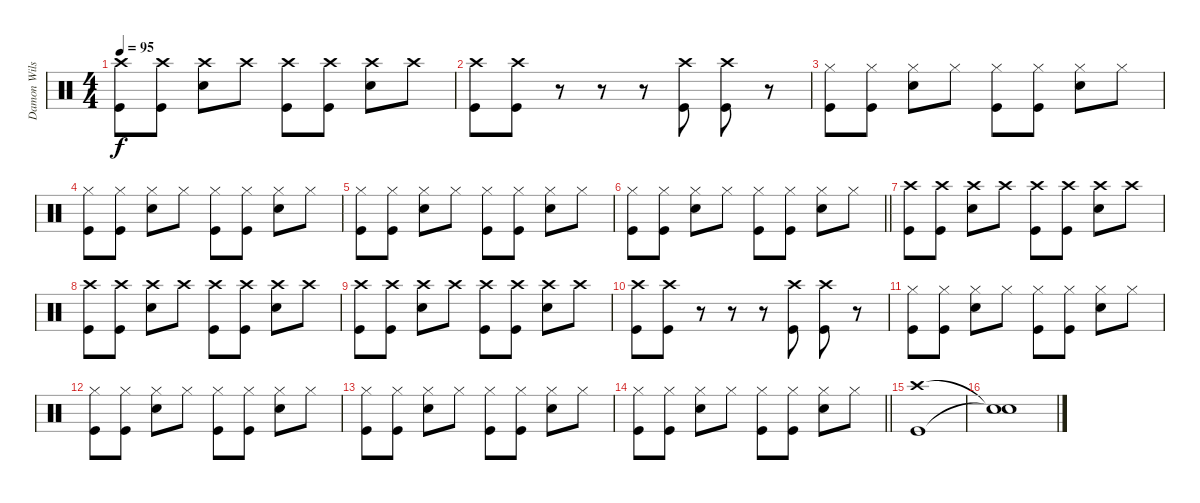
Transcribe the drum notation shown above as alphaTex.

\track ("Damon Wilson (Drums)" "Damon Wils") {instrument percussion}
\staff {score}
\articulation defaults
\ts (4 4)
\tempo 95
\clef neutral
\ks c
("Crash high (hit)" "Kick (hit)").8{dy f} ("Crash high (hit)" "Kick (hit)").8 ("Crash high (hit)" "Snare (hit) 2").8 "Crash high (hit)".8 ("Crash high (hit)" "Kick (hit)").8 ("Crash high (hit)" "Kick (hit)").8 ("Crash high (hit)" "Snare (hit) 2").8 "Crash high (hit)".8 |
("Crash high (hit)" "Kick (hit)").8 ("Crash high (hit)" "Kick (hit)").8 r.8 r.8 r.8 ("Crash high (hit)" "Kick (hit)").8 ("Crash high (hit)" "Kick (hit)").8 r.8 |
("Hi-Hat (closed)" "Kick (hit)").8 ("Hi-Hat (closed)" "Kick (hit)").8 ("Hi-Hat (closed)" "Snare (hit) 2").8 "Hi-Hat (closed)".8 ("Hi-Hat (closed)" "Kick (hit)").8 ("Hi-Hat (closed)" "Kick (hit)").8 ("Hi-Hat (closed)" "Snare (hit) 2").8 "Hi-Hat (closed)".8 |
("Hi-Hat (closed)" "Kick (hit)").8 ("Hi-Hat (closed)" "Kick (hit)").8 ("Hi-Hat (closed)" "Snare (hit) 2").8 "Hi-Hat (closed)".8 ("Hi-Hat (closed)" "Kick (hit)").8 ("Hi-Hat (closed)" "Kick (hit)").8 ("Hi-Hat (closed)" "Snare (hit) 2").8 "Hi-Hat (closed)".8 |
("Hi-Hat (closed)" "Kick (hit)").8 ("Hi-Hat (closed)" "Kick (hit)").8 ("Hi-Hat (closed)" "Snare (hit) 2").8 "Hi-Hat (closed)".8 ("Hi-Hat (closed)" "Kick (hit)").8 ("Hi-Hat (closed)" "Kick (hit)").8 ("Hi-Hat (closed)" "Snare (hit) 2").8 "Hi-Hat (closed)".8 |
\barLineRight lightlight
("Hi-Hat (closed)" "Kick (hit)").8 ("Hi-Hat (closed)" "Kick (hit)").8 ("Hi-Hat (closed)" "Snare (hit) 2").8 "Hi-Hat (closed)".8 ("Hi-Hat (closed)" "Kick (hit)").8 ("Hi-Hat (closed)" "Kick (hit)").8 ("Hi-Hat (closed)" "Snare (hit) 2").8 "Hi-Hat (closed)".8 |
("Crash high (hit)" "Kick (hit)").8 ("Crash high (hit)" "Kick (hit)").8 ("Crash high (hit)" "Snare (hit) 2").8 "Crash high (hit)".8 ("Crash high (hit)" "Kick (hit)").8 ("Crash high (hit)" "Kick (hit)").8 ("Crash high (hit)" "Snare (hit) 2").8 "Crash high (hit)".8 |
("Crash high (hit)" "Kick (hit)").8 ("Crash high (hit)" "Kick (hit)").8 ("Crash high (hit)" "Snare (hit) 2").8 "Crash high (hit)".8 ("Crash high (hit)" "Kick (hit)").8 ("Crash high (hit)" "Kick (hit)").8 ("Crash high (hit)" "Snare (hit) 2").8 "Crash high (hit)".8 |
("Crash high (hit)" "Kick (hit)").8 ("Crash high (hit)" "Kick (hit)").8 ("Crash high (hit)" "Snare (hit) 2").8 "Crash high (hit)".8 ("Crash high (hit)" "Kick (hit)").8 ("Crash high (hit)" "Kick (hit)").8 ("Crash high (hit)" "Snare (hit) 2").8 "Crash high (hit)".8 |
("Crash high (hit)" "Kick (hit)").8 ("Crash high (hit)" "Kick (hit)").8 r.8 r.8 r.8 ("Crash high (hit)" "Kick (hit)").8 ("Crash high (hit)" "Kick (hit)").8 r.8 |
("Hi-Hat (closed)" "Kick (hit)").8 ("Hi-Hat (closed)" "Kick (hit)").8 ("Hi-Hat (closed)" "Snare (hit) 2").8 "Hi-Hat (closed)".8 ("Hi-Hat (closed)" "Kick (hit)").8 ("Hi-Hat (closed)" "Kick (hit)").8 ("Hi-Hat (closed)" "Snare (hit) 2").8 "Hi-Hat (closed)".8 |
("Hi-Hat (closed)" "Kick (hit)").8 ("Hi-Hat (closed)" "Kick (hit)").8 ("Hi-Hat (closed)" "Snare (hit) 2").8 "Hi-Hat (closed)".8 ("Hi-Hat (closed)" "Kick (hit)").8 ("Hi-Hat (closed)" "Kick (hit)").8 ("Hi-Hat (closed)" "Snare (hit) 2").8 "Hi-Hat (closed)".8 |
("Hi-Hat (closed)" "Kick (hit)").8 ("Hi-Hat (closed)" "Kick (hit)").8 ("Hi-Hat (closed)" "Snare (hit) 2").8 "Hi-Hat (closed)".8 ("Hi-Hat (closed)" "Kick (hit)").8 ("Hi-Hat (closed)" "Kick (hit)").8 ("Hi-Hat (closed)" "Snare (hit) 2").8 "Hi-Hat (closed)".8 |
\barLineRight lightlight
("Hi-Hat (closed)" "Kick (hit)").8 ("Hi-Hat (closed)" "Kick (hit)").8 ("Hi-Hat (closed)" "Snare (hit) 2").8 "Hi-Hat (closed)".8 ("Hi-Hat (closed)" "Kick (hit)").8 ("Hi-Hat (closed)" "Kick (hit)").8 ("Hi-Hat (closed)" "Snare (hit) 2").8 "Hi-Hat (closed)".8 |
("Crash high (hit)" "Kick (hit)").1 |
("Snare (hit)"{t} "Snare (hit)"{t}).1
